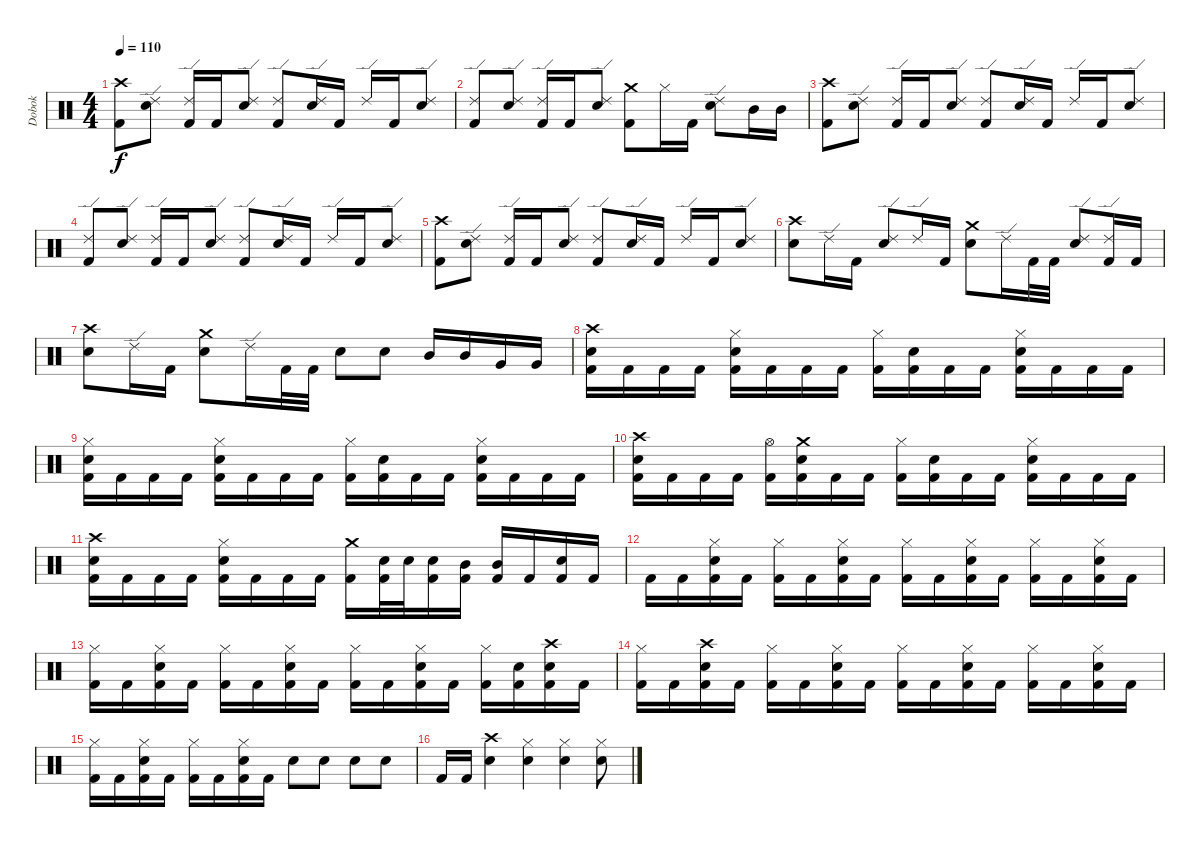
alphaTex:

\track ("Dobok" "Dobok") {instrument percussion}
\staff {score}
\articulation defaults
\ts (4 4)
\tempo 110
\clef neutral
\ks c
("Crash high (hit)" "Kick (hit) 2").8{dy f} ("Ride (edge) 2" "Snare (hit) 2").8 ("Ride (edge) 2" "Kick (hit) 2").16 "Kick (hit) 2".16 ("Ride (edge) 2" "Snare (hit) 2").8 ("Ride (edge) 2" "Kick (hit) 2").8 ("Ride (edge) 2" "Snare (hit) 2").16 "Kick (hit) 2".16 "Ride (edge) 2".16 "Kick (hit) 2".16 ("Ride (edge) 2" "Snare (hit) 2").8 |
("Ride (edge) 2" "Kick (hit) 2").8 ("Ride (edge) 2" "Snare (hit) 2").8 ("Ride (edge) 2" "Kick (hit) 2").16 "Kick (hit) 2".16 ("Ride (edge) 2" "Snare (hit) 2").8 ("Crash medium (hit)" "Kick (hit) 2").8 "Hi-Hat (closed)".16 "Kick (hit) 2".16 ("Ride (edge) 2" "Snare (hit) 2").8 "Mid Tom (hit)".16 "Mid Tom (hit)".16 |
("Crash high (hit)" "Kick (hit) 2").8 ("Ride (edge) 2" "Snare (hit) 2").8 ("Ride (edge) 2" "Kick (hit) 2").16 "Kick (hit) 2".16 ("Ride (edge) 2" "Snare (hit) 2").8 ("Ride (edge) 2" "Kick (hit) 2").8 ("Ride (edge) 2" "Snare (hit) 2").16 "Kick (hit) 2".16 "Ride (edge) 2".16 "Kick (hit) 2".16 ("Ride (edge) 2" "Snare (hit) 2").8 |
("Ride (edge) 2" "Kick (hit) 2").8 ("Ride (edge) 2" "Snare (hit) 2").8 ("Ride (edge) 2" "Kick (hit) 2").16 "Kick (hit) 2".16 ("Ride (edge) 2" "Snare (hit) 2").8 ("Ride (edge) 2" "Kick (hit) 2").8 ("Ride (edge) 2" "Snare (hit) 2").16 "Kick (hit) 2".16 "Ride (edge) 2".16 "Kick (hit) 2".16 ("Ride (edge) 2" "Snare (hit) 2").8 |
("Crash high (hit)" "Kick (hit) 2").8 ("Ride (edge) 2" "Snare (hit) 2").8 ("Ride (edge) 2" "Kick (hit) 2").16 "Kick (hit) 2".16 ("Ride (edge) 2" "Snare (hit) 2").8 ("Ride (edge) 2" "Kick (hit) 2").8 ("Ride (edge) 2" "Snare (hit) 2").16 "Kick (hit) 2".16 "Ride (edge) 2".16 "Kick (hit) 2".16 ("Ride (edge) 2" "Snare (hit) 2").8 |
("Crash high (hit)" "Snare (hit) 2").8 "Ride (edge) 2".16 "Kick (hit) 2".16 ("Ride (edge) 2" "Snare (hit) 2").8 "Ride (edge) 2".16 "Kick (hit) 2".16 ("Crash medium (hit)" "Snare (hit) 2").8 "Ride (edge) 2".16 "Kick (hit) 2".32 "Kick (hit) 2".32 ("Ride (edge) 2" "Snare (hit) 2").8 ("Ride (edge) 2" "Kick (hit) 2").16 "Kick (hit) 2".16 |
("Crash high (hit)" "Snare (hit) 2").8 "Ride (edge) 2".16 "Kick (hit) 2".16 ("Crash medium (hit)" "Snare (hit) 2").8 "Ride (edge) 2".16 "Kick (hit) 2".32 "Kick (hit) 2".32 "Snare (hit) 2".8 "Snare (hit) 2".8 "Mid Tom (hit)".16 "Mid Tom (hit)".16 "Very Low Tom (hit)".16 "Very Low Tom (hit)".16 |
("Crash high (hit)" "Snare (hit) 2" "Kick (hit) 2").16 "Kick (hit) 2".16 "Kick (hit) 2".16 "Kick (hit) 2".16 ("Hi-Hat (closed)" "Snare (hit) 2" "Kick (hit) 2").16 "Kick (hit) 2".16 "Kick (hit) 2".16 "Kick (hit) 2".16 ("Hi-Hat (closed)" "Kick (hit) 2").16 ("Snare (hit) 2" "Kick (hit) 2").16 "Kick (hit) 2".16 "Kick (hit) 2".16 ("Hi-Hat (closed)" "Snare (hit) 2" "Kick (hit) 2").16 "Kick (hit) 2".16 "Kick (hit) 2".16 "Kick (hit) 2".16 |
("Hi-Hat (closed)" "Snare (hit) 2" "Kick (hit) 2").16 "Kick (hit) 2".16 "Kick (hit) 2".16 "Kick (hit) 2".16 ("Hi-Hat (closed)" "Snare (hit) 2" "Kick (hit) 2").16 "Kick (hit) 2".16 "Kick (hit) 2".16 "Kick (hit) 2".16 ("Hi-Hat (closed)" "Kick (hit) 2").16 ("Snare (hit) 2" "Kick (hit) 2").16 "Kick (hit) 2".16 "Kick (hit) 2".16 ("Hi-Hat (closed)" "Snare (hit) 2" "Kick (hit) 2").16 "Kick (hit) 2".16 "Kick (hit) 2".16 "Kick (hit) 2".16 |
("Crash high (hit)" "Snare (hit) 2" "Kick (hit) 2").16 "Kick (hit) 2".16 "Kick (hit) 2".16 "Kick (hit) 2".16 ("Hi-Hat (open)" "Kick (hit) 2").16 ("Crash medium (hit)" "Snare (hit) 2" "Kick (hit) 2").16 "Kick (hit) 2".16 "Kick (hit) 2".16 ("Hi-Hat (closed)" "Kick (hit) 2").16 ("Snare (hit) 2" "Kick (hit) 2").16 "Kick (hit) 2".16 "Kick (hit) 2".16 ("Hi-Hat (closed)" "Snare (hit) 2" "Kick (hit) 2").16 "Kick (hit) 2".16 "Kick (hit) 2".16 "Kick (hit) 2".16 |
("Crash high (hit)" "Snare (hit) 2" "Kick (hit) 2").16 "Kick (hit) 2".16 "Kick (hit) 2".16 "Kick (hit) 2".16 ("Hi-Hat (closed)" "Snare (hit) 2" "Kick (hit) 2").16 "Kick (hit) 2".16 "Kick (hit) 2".16 "Kick (hit) 2".16 ("Crash medium (hit)" "Kick (hit) 2").16 ("Snare (hit) 2" "Kick (hit) 2").32 "Snare (hit) 2".32 ("Snare (hit) 2" "Kick (hit) 2").16 ("Mid Tom (hit)" "Kick (hit) 2").16 ("Mid Tom (hit)" "Kick (hit) 2").16 "Kick (hit) 2".16 ("Snare (hit) 2" "Kick (hit) 2").16 "Kick (hit) 2".16 |
"Kick (hit) 2".16 "Kick (hit) 2".16 ("Hi-Hat (closed)" "Snare (hit) 2" "Kick (hit) 2").16 "Kick (hit) 2".16 ("Hi-Hat (closed)" "Kick (hit) 2").16 "Kick (hit) 2".16 ("Hi-Hat (closed)" "Snare (hit) 2" "Kick (hit) 2").16 "Kick (hit) 2".16 ("Hi-Hat (closed)" "Kick (hit) 2").16 "Kick (hit) 2".16 ("Hi-Hat (closed)" "Snare (hit) 2" "Kick (hit) 2").16 "Kick (hit) 2".16 ("Hi-Hat (closed)" "Kick (hit) 2").16 "Kick (hit) 2".16 ("Hi-Hat (closed)" "Snare (hit) 2" "Kick (hit) 2").16 "Kick (hit) 2".16 |
("Hi-Hat (closed)" "Kick (hit) 2").16 "Kick (hit) 2".16 ("Hi-Hat (closed)" "Snare (hit) 2" "Kick (hit) 2").16 "Kick (hit) 2".16 ("Hi-Hat (closed)" "Kick (hit) 2").16 "Kick (hit) 2".16 ("Hi-Hat (closed)" "Snare (hit) 2" "Kick (hit) 2").16 "Kick (hit) 2".16 ("Hi-Hat (closed)" "Kick (hit) 2").16 "Kick (hit) 2".16 ("Hi-Hat (closed)" "Snare (hit) 2" "Kick (hit) 2").16 "Kick (hit) 2".16 ("Hi-Hat (closed)" "Kick (hit) 2").16 ("Snare (hit) 2" "Kick (hit) 2").16 ("Crash high (hit)" "Snare (hit) 2" "Kick (hit) 2").16 "Kick (hit) 2".16 |
("Hi-Hat (closed)" "Kick (hit) 2").16 "Kick (hit) 2".16 ("Crash high (hit)" "Snare (hit) 2" "Kick (hit) 2").16 "Kick (hit) 2".16 ("Hi-Hat (closed)" "Kick (hit) 2").16 "Kick (hit) 2".16 ("Hi-Hat (closed)" "Snare (hit) 2" "Kick (hit) 2").16 "Kick (hit) 2".16 ("Hi-Hat (closed)" "Kick (hit) 2").16 "Kick (hit) 2".16 ("Hi-Hat (closed)" "Snare (hit) 2" "Kick (hit) 2").16 "Kick (hit) 2".16 ("Hi-Hat (closed)" "Kick (hit) 2").16 "Kick (hit) 2".16 ("Hi-Hat (closed)" "Snare (hit) 2" "Kick (hit) 2").16 "Kick (hit) 2".16 |
("Hi-Hat (closed)" "Kick (hit) 2").16 "Kick (hit) 2".16 ("Hi-Hat (closed)" "Snare (hit) 2" "Kick (hit) 2").16 "Kick (hit) 2".16 ("Hi-Hat (closed)" "Kick (hit) 2").16 "Kick (hit) 2".16 ("Hi-Hat (closed)" "Snare (hit) 2" "Kick (hit) 2").16 "Kick (hit) 2".16 "Snare (hit) 2".8 "Snare (hit) 2".8 "Snare (hit) 2".8 "Snare (hit) 2".8 |
"Kick (hit) 2".16 "Kick (hit) 2".16 ("Crash high (hit)" "Snare (hit) 2").4 ("Hi-Hat (closed)" "Snare (hit) 2").4 ("Hi-Hat (closed)" "Snare (hit) 2").4 ("Hi-Hat (closed)" "Snare (hit) 2").8
